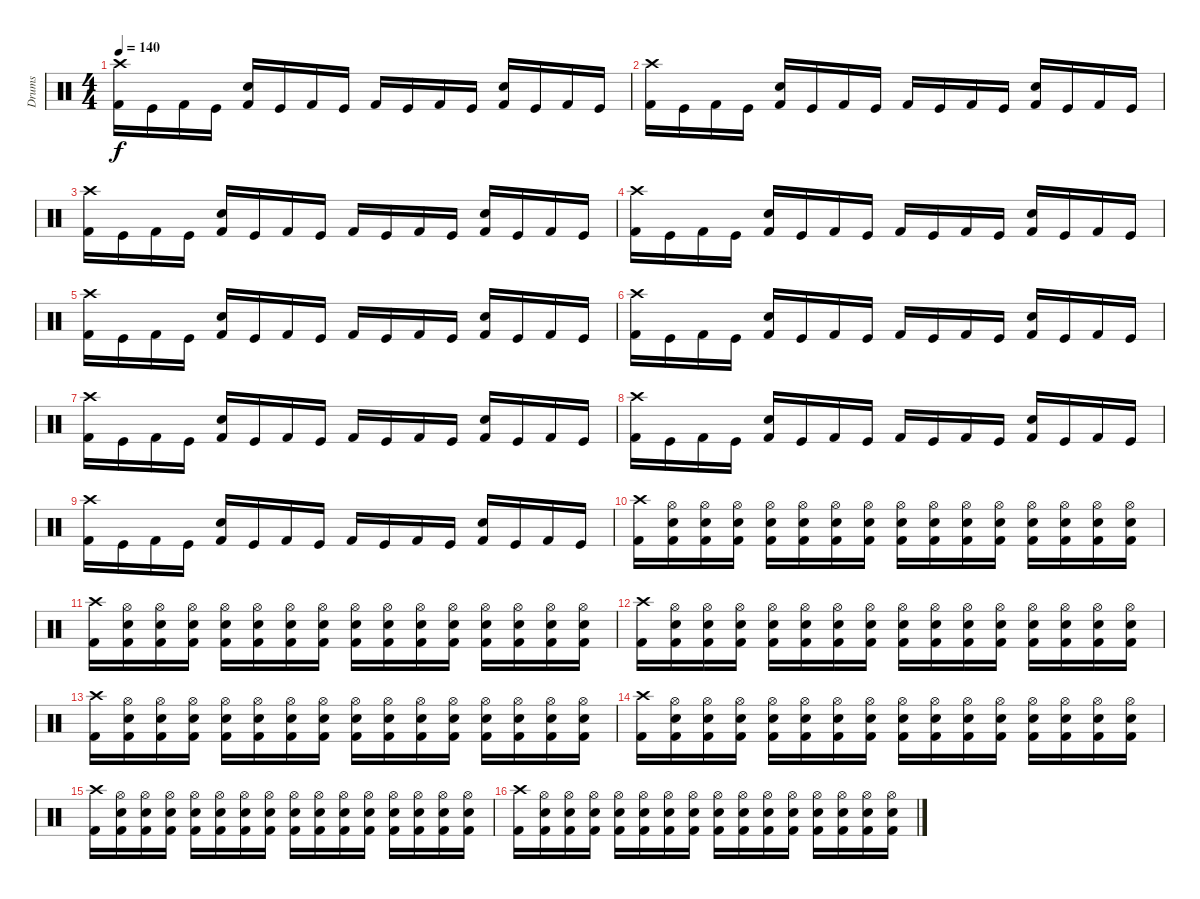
\track ("Drums" "Drums") {instrument percussion}
\staff {score}
\articulation defaults
\ts (4 4)
\tempo 140
\clef neutral
\ks c
("Crash high (hit)" "Kick (hit) 2").16{dy f} "Kick (hit)".16 "Kick (hit) 2".16 "Kick (hit)".16 ("Electric Snare (hit)" "Kick (hit) 2").16 "Kick (hit)".16 "Kick (hit) 2".16 "Kick (hit)".16 "Kick (hit) 2".16 "Kick (hit)".16 "Kick (hit) 2".16 "Kick (hit)".16 ("Electric Snare (hit)" "Kick (hit) 2").16 "Kick (hit)".16 "Kick (hit) 2".16 "Kick (hit)".16 |
("Crash high (hit)" "Kick (hit) 2").16 "Kick (hit)".16 "Kick (hit) 2".16 "Kick (hit)".16 ("Electric Snare (hit)" "Kick (hit) 2").16 "Kick (hit)".16 "Kick (hit) 2".16 "Kick (hit)".16 "Kick (hit) 2".16 "Kick (hit)".16 "Kick (hit) 2".16 "Kick (hit)".16 ("Electric Snare (hit)" "Kick (hit) 2").16 "Kick (hit)".16 "Kick (hit) 2".16 "Kick (hit)".16 |
("Crash high (hit)" "Kick (hit) 2").16 "Kick (hit)".16 "Kick (hit) 2".16 "Kick (hit)".16 ("Electric Snare (hit)" "Kick (hit) 2").16 "Kick (hit)".16 "Kick (hit) 2".16 "Kick (hit)".16 "Kick (hit) 2".16 "Kick (hit)".16 "Kick (hit) 2".16 "Kick (hit)".16 ("Electric Snare (hit)" "Kick (hit) 2").16 "Kick (hit)".16 "Kick (hit) 2".16 "Kick (hit)".16 |
("Crash high (hit)" "Kick (hit) 2").16 "Kick (hit)".16 "Kick (hit) 2".16 "Kick (hit)".16 ("Electric Snare (hit)" "Kick (hit) 2").16 "Kick (hit)".16 "Kick (hit) 2".16 "Kick (hit)".16 "Kick (hit) 2".16 "Kick (hit)".16 "Kick (hit) 2".16 "Kick (hit)".16 ("Electric Snare (hit)" "Kick (hit) 2").16 "Kick (hit)".16 "Kick (hit) 2".16 "Kick (hit)".16 |
("Crash high (hit)" "Kick (hit) 2").16 "Kick (hit)".16 "Kick (hit) 2".16 "Kick (hit)".16 ("Electric Snare (hit)" "Kick (hit) 2").16 "Kick (hit)".16 "Kick (hit) 2".16 "Kick (hit)".16 "Kick (hit) 2".16 "Kick (hit)".16 "Kick (hit) 2".16 "Kick (hit)".16 ("Electric Snare (hit)" "Kick (hit) 2").16 "Kick (hit)".16 "Kick (hit) 2".16 "Kick (hit)".16 |
("Crash high (hit)" "Kick (hit) 2").16 "Kick (hit)".16 "Kick (hit) 2".16 "Kick (hit)".16 ("Electric Snare (hit)" "Kick (hit) 2").16 "Kick (hit)".16 "Kick (hit) 2".16 "Kick (hit)".16 "Kick (hit) 2".16 "Kick (hit)".16 "Kick (hit) 2".16 "Kick (hit)".16 ("Electric Snare (hit)" "Kick (hit) 2").16 "Kick (hit)".16 "Kick (hit) 2".16 "Kick (hit)".16 |
("Crash high (hit)" "Kick (hit) 2").16 "Kick (hit)".16 "Kick (hit) 2".16 "Kick (hit)".16 ("Electric Snare (hit)" "Kick (hit) 2").16 "Kick (hit)".16 "Kick (hit) 2".16 "Kick (hit)".16 "Kick (hit) 2".16 "Kick (hit)".16 "Kick (hit) 2".16 "Kick (hit)".16 ("Electric Snare (hit)" "Kick (hit) 2").16 "Kick (hit)".16 "Kick (hit) 2".16 "Kick (hit)".16 |
("Crash high (hit)" "Kick (hit) 2").16 "Kick (hit)".16 "Kick (hit) 2".16 "Kick (hit)".16 ("Electric Snare (hit)" "Kick (hit) 2").16 "Kick (hit)".16 "Kick (hit) 2".16 "Kick (hit)".16 "Kick (hit) 2".16 "Kick (hit)".16 "Kick (hit) 2".16 "Kick (hit)".16 ("Electric Snare (hit)" "Kick (hit) 2").16 "Kick (hit)".16 "Kick (hit) 2".16 "Kick (hit)".16 |
("Crash high (hit)" "Kick (hit) 2").16 "Kick (hit)".16 "Kick (hit) 2".16 "Kick (hit)".16 ("Electric Snare (hit)" "Kick (hit) 2").16 "Kick (hit)".16 "Kick (hit) 2".16 "Kick (hit)".16 "Kick (hit) 2".16 "Kick (hit)".16 "Kick (hit) 2".16 "Kick (hit)".16 ("Electric Snare (hit)" "Kick (hit) 2").16 "Kick (hit)".16 "Kick (hit) 2".16 "Kick (hit)".16 |
("Crash high (hit)" "Kick (hit) 2").16 ("Hi-Hat (open)" "Electric Snare (hit)" "Kick (hit) 2").16 ("Hi-Hat (open)" "Electric Snare (hit)" "Kick (hit) 2").16 ("Hi-Hat (open)" "Electric Snare (hit)" "Kick (hit) 2").16 ("Hi-Hat (open)" "Electric Snare (hit)" "Kick (hit) 2").16 ("Hi-Hat (open)" "Electric Snare (hit)" "Kick (hit) 2").16 ("Hi-Hat (open)" "Electric Snare (hit)" "Kick (hit) 2").16 ("Hi-Hat (open)" "Electric Snare (hit)" "Kick (hit) 2").16 ("Hi-Hat (open)" "Electric Snare (hit)" "Kick (hit) 2").16 ("Hi-Hat (open)" "Electric Snare (hit)" "Kick (hit) 2").16 ("Hi-Hat (open)" "Electric Snare (hit)" "Kick (hit) 2").16 ("Hi-Hat (open)" "Electric Snare (hit)" "Kick (hit) 2").16 ("Hi-Hat (open)" "Electric Snare (hit)" "Kick (hit) 2").16 ("Hi-Hat (open)" "Electric Snare (hit)" "Kick (hit) 2").16 ("Hi-Hat (open)" "Electric Snare (hit)" "Kick (hit) 2").16 ("Hi-Hat (open)" "Electric Snare (hit)" "Kick (hit) 2").16 |
("Crash high (hit)" "Kick (hit) 2").16 ("Hi-Hat (open)" "Electric Snare (hit)" "Kick (hit) 2").16 ("Hi-Hat (open)" "Electric Snare (hit)" "Kick (hit) 2").16 ("Hi-Hat (open)" "Electric Snare (hit)" "Kick (hit) 2").16 ("Hi-Hat (open)" "Electric Snare (hit)" "Kick (hit) 2").16 ("Hi-Hat (open)" "Electric Snare (hit)" "Kick (hit) 2").16 ("Hi-Hat (open)" "Electric Snare (hit)" "Kick (hit) 2").16 ("Hi-Hat (open)" "Electric Snare (hit)" "Kick (hit) 2").16 ("Hi-Hat (open)" "Electric Snare (hit)" "Kick (hit) 2").16 ("Hi-Hat (open)" "Electric Snare (hit)" "Kick (hit) 2").16 ("Hi-Hat (open)" "Electric Snare (hit)" "Kick (hit) 2").16 ("Hi-Hat (open)" "Electric Snare (hit)" "Kick (hit) 2").16 ("Hi-Hat (open)" "Electric Snare (hit)" "Kick (hit) 2").16 ("Hi-Hat (open)" "Electric Snare (hit)" "Kick (hit) 2").16 ("Hi-Hat (open)" "Electric Snare (hit)" "Kick (hit) 2").16 ("Hi-Hat (open)" "Electric Snare (hit)" "Kick (hit) 2").16 |
("Crash high (hit)" "Kick (hit) 2").16 ("Hi-Hat (open)" "Electric Snare (hit)" "Kick (hit) 2").16 ("Hi-Hat (open)" "Electric Snare (hit)" "Kick (hit) 2").16 ("Hi-Hat (open)" "Electric Snare (hit)" "Kick (hit) 2").16 ("Hi-Hat (open)" "Electric Snare (hit)" "Kick (hit) 2").16 ("Hi-Hat (open)" "Electric Snare (hit)" "Kick (hit) 2").16 ("Hi-Hat (open)" "Electric Snare (hit)" "Kick (hit) 2").16 ("Hi-Hat (open)" "Electric Snare (hit)" "Kick (hit) 2").16 ("Hi-Hat (open)" "Electric Snare (hit)" "Kick (hit) 2").16 ("Hi-Hat (open)" "Electric Snare (hit)" "Kick (hit) 2").16 ("Hi-Hat (open)" "Electric Snare (hit)" "Kick (hit) 2").16 ("Hi-Hat (open)" "Electric Snare (hit)" "Kick (hit) 2").16 ("Hi-Hat (open)" "Electric Snare (hit)" "Kick (hit) 2").16 ("Hi-Hat (open)" "Electric Snare (hit)" "Kick (hit) 2").16 ("Hi-Hat (open)" "Electric Snare (hit)" "Kick (hit) 2").16 ("Hi-Hat (open)" "Electric Snare (hit)" "Kick (hit) 2").16 |
("Crash high (hit)" "Kick (hit) 2").16 ("Hi-Hat (open)" "Electric Snare (hit)" "Kick (hit) 2").16 ("Hi-Hat (open)" "Electric Snare (hit)" "Kick (hit) 2").16 ("Hi-Hat (open)" "Electric Snare (hit)" "Kick (hit) 2").16 ("Hi-Hat (open)" "Electric Snare (hit)" "Kick (hit) 2").16 ("Hi-Hat (open)" "Electric Snare (hit)" "Kick (hit) 2").16 ("Hi-Hat (open)" "Electric Snare (hit)" "Kick (hit) 2").16 ("Hi-Hat (open)" "Electric Snare (hit)" "Kick (hit) 2").16 ("Hi-Hat (open)" "Electric Snare (hit)" "Kick (hit) 2").16 ("Hi-Hat (open)" "Electric Snare (hit)" "Kick (hit) 2").16 ("Hi-Hat (open)" "Electric Snare (hit)" "Kick (hit) 2").16 ("Hi-Hat (open)" "Electric Snare (hit)" "Kick (hit) 2").16 ("Hi-Hat (open)" "Electric Snare (hit)" "Kick (hit) 2").16 ("Hi-Hat (open)" "Electric Snare (hit)" "Kick (hit) 2").16 ("Hi-Hat (open)" "Electric Snare (hit)" "Kick (hit) 2").16 ("Hi-Hat (open)" "Electric Snare (hit)" "Kick (hit) 2").16 |
("Crash high (hit)" "Kick (hit) 2").16 ("Hi-Hat (open)" "Electric Snare (hit)" "Kick (hit) 2").16 ("Hi-Hat (open)" "Electric Snare (hit)" "Kick (hit) 2").16 ("Hi-Hat (open)" "Electric Snare (hit)" "Kick (hit) 2").16 ("Hi-Hat (open)" "Electric Snare (hit)" "Kick (hit) 2").16 ("Hi-Hat (open)" "Electric Snare (hit)" "Kick (hit) 2").16 ("Hi-Hat (open)" "Electric Snare (hit)" "Kick (hit) 2").16 ("Hi-Hat (open)" "Electric Snare (hit)" "Kick (hit) 2").16 ("Hi-Hat (open)" "Electric Snare (hit)" "Kick (hit) 2").16 ("Hi-Hat (open)" "Electric Snare (hit)" "Kick (hit) 2").16 ("Hi-Hat (open)" "Electric Snare (hit)" "Kick (hit) 2").16 ("Hi-Hat (open)" "Electric Snare (hit)" "Kick (hit) 2").16 ("Hi-Hat (open)" "Electric Snare (hit)" "Kick (hit) 2").16 ("Hi-Hat (open)" "Electric Snare (hit)" "Kick (hit) 2").16 ("Hi-Hat (open)" "Electric Snare (hit)" "Kick (hit) 2").16 ("Hi-Hat (open)" "Electric Snare (hit)" "Kick (hit) 2").16 |
("Crash high (hit)" "Kick (hit) 2").16 ("Hi-Hat (open)" "Electric Snare (hit)" "Kick (hit) 2").16 ("Hi-Hat (open)" "Electric Snare (hit)" "Kick (hit) 2").16 ("Hi-Hat (open)" "Electric Snare (hit)" "Kick (hit) 2").16 ("Hi-Hat (open)" "Electric Snare (hit)" "Kick (hit) 2").16 ("Hi-Hat (open)" "Electric Snare (hit)" "Kick (hit) 2").16 ("Hi-Hat (open)" "Electric Snare (hit)" "Kick (hit) 2").16 ("Hi-Hat (open)" "Electric Snare (hit)" "Kick (hit) 2").16 ("Hi-Hat (open)" "Electric Snare (hit)" "Kick (hit) 2").16 ("Hi-Hat (open)" "Electric Snare (hit)" "Kick (hit) 2").16 ("Hi-Hat (open)" "Electric Snare (hit)" "Kick (hit) 2").16 ("Hi-Hat (open)" "Electric Snare (hit)" "Kick (hit) 2").16 ("Hi-Hat (open)" "Electric Snare (hit)" "Kick (hit) 2").16 ("Hi-Hat (open)" "Electric Snare (hit)" "Kick (hit) 2").16 ("Hi-Hat (open)" "Electric Snare (hit)" "Kick (hit) 2").16 ("Hi-Hat (open)" "Electric Snare (hit)" "Kick (hit) 2").16 |
("Crash high (hit)" "Kick (hit) 2").16 ("Hi-Hat (open)" "Electric Snare (hit)" "Kick (hit) 2").16 ("Hi-Hat (open)" "Electric Snare (hit)" "Kick (hit) 2").16 ("Hi-Hat (open)" "Electric Snare (hit)" "Kick (hit) 2").16 ("Hi-Hat (open)" "Electric Snare (hit)" "Kick (hit) 2").16 ("Hi-Hat (open)" "Electric Snare (hit)" "Kick (hit) 2").16 ("Hi-Hat (open)" "Electric Snare (hit)" "Kick (hit) 2").16 ("Hi-Hat (open)" "Electric Snare (hit)" "Kick (hit) 2").16 ("Hi-Hat (open)" "Electric Snare (hit)" "Kick (hit) 2").16 ("Hi-Hat (open)" "Electric Snare (hit)" "Kick (hit) 2").16 ("Hi-Hat (open)" "Electric Snare (hit)" "Kick (hit) 2").16 ("Hi-Hat (open)" "Electric Snare (hit)" "Kick (hit) 2").16 ("Hi-Hat (open)" "Electric Snare (hit)" "Kick (hit) 2").16 ("Hi-Hat (open)" "Electric Snare (hit)" "Kick (hit) 2").16 ("Hi-Hat (open)" "Electric Snare (hit)" "Kick (hit) 2").16 ("Hi-Hat (open)" "Electric Snare (hit)" "Kick (hit) 2").16
